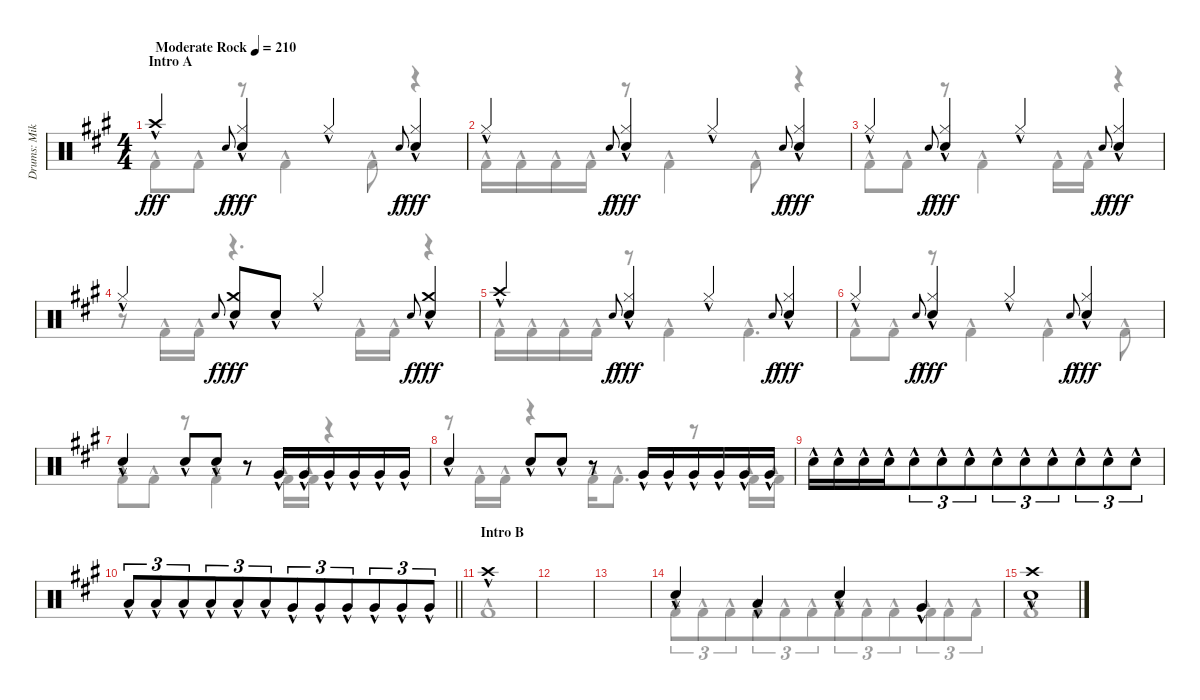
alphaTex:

\track ("Drums: Mikkey" "Drums: Mik") {instrument percussion}
\staff {score}
\articulation defaults
\voice
\ts (4 4)
\section ("" "Intro A")
\tempo (210 "Moderate Rock")
\clef neutral
\ks a "Crash high (hit)"{hac}.4{dy fff} "Electric Snare (hit)".8{gr onbeat dy f}
("Hi-Hat (closed)"{hac} "Snare (hit) 2"{hac}).4{dy fff} "Hi-Hat (closed)"{hac}.4 "Electric Snare (hit)".8{gr onbeat dy f} ("Hi-Hat (closed)"{hac} "Snare (hit) 2"{hac}).4{dy fff} |
"Hi-Hat (closed)"{hac}.4 "Electric Snare (hit)".8{gr onbeat dy f} ("Hi-Hat (closed)"{hac} "Snare (hit) 2"{hac}).4{dy fff} "Hi-Hat (closed)"{hac}.4 "Electric Snare (hit)".8{gr onbeat dy f} ("Hi-Hat (closed)"{hac} "Snare (hit) 2"{hac}).4{dy fff} |
"Hi-Hat (closed)"{hac}.4 "Electric Snare (hit)".8{gr onbeat dy f} ("Hi-Hat (closed)"{hac} "Snare (hit) 2"{hac}).4{dy fff} "Hi-Hat (closed)"{hac}.4 "Electric Snare (hit)".8{gr onbeat dy f} ("Hi-Hat (closed)"{hac} "Snare (hit) 2"{hac}).4{dy fff} |
"Hi-Hat (closed)"{hac}.4 "Electric Snare (hit)".8{gr onbeat dy f} ("Crash medium (hit)"{hac} "Snare (hit) 2"{hac}).8{dy fff} "Snare (hit) 2"{hac}.8 "Hi-Hat (closed)"{hac}.4 "Electric Snare (hit)".8{gr onbeat dy f} ("Crash medium (hit)"{hac} "Snare (hit) 2"{hac}).4{dy fff} |
"Crash high (hit)"{hac}.4 "Electric Snare (hit)".8{gr onbeat dy f} ("Hi-Hat (closed)"{hac} "Snare (hit) 2"{hac}).4{dy fff} "Hi-Hat (closed)"{hac}.4 "Electric Snare (hit)".8{gr onbeat dy f} ("Hi-Hat (closed)"{hac} "Snare (hit) 2"{hac}).4{dy fff} |
"Hi-Hat (closed)"{hac}.4 "Electric Snare (hit)".8{gr onbeat dy f} ("Hi-Hat (closed)"{hac} "Snare (hit) 2"{hac}).4{dy fff} "Hi-Hat (closed)"{hac}.4 "Electric Snare (hit)".8{gr onbeat dy f} ("Hi-Hat (closed)"{hac} "Snare (hit) 2"{hac}).4{dy fff} |
"Snare (hit) 2"{hac}.4 "Snare (hit) 2"{hac}.8 "Snare (hit) 2"{hac}.8 r.8 "Very Low Tom (hit)"{hac}.16 "Very Low Tom (hit)"{hac}.16{beam merge} "Very Low Tom (hit)"{hac}.16 "Very Low Tom (hit)"{hac}.16 "Very Low Tom (hit)"{hac}.16 "Very Low Tom (hit)"{hac}.16 |
"Snare (hit) 2"{hac}.4 "Snare (hit) 2"{hac}.8 "Snare (hit) 2"{hac}.8 r.8 "Very Low Tom (hit)"{hac}.16 "Very Low Tom (hit)"{hac}.16{beam merge} "Very Low Tom (hit)"{hac}.16 "Very Low Tom (hit)"{hac}.16 "Very Low Tom (hit)"{hac}.16 "Very Low Tom (hit)"{hac}.16 |
"Snare (hit) 2"{hac}.16 "Snare (hit) 2"{hac}.16 "Snare (hit) 2"{hac}.16 "Snare (hit) 2"{hac}.16{beam merge} "Snare (hit) 2"{hac}.8{tu (3 2)} "Snare (hit) 2"{hac}.8{tu (3 2)} "Snare (hit) 2"{hac}.8{tu (3 2) beam merge} "Snare (hit) 2"{hac}.8{tu (3 2)} "Snare (hit) 2"{hac}.8{tu (3 2)} "Snare (hit) 2"{hac}.8{tu (3 2) beam merge} "Snare (hit) 2"{hac}.8{tu (3 2)} "Snare (hit) 2"{hac}.8{tu (3 2)} "Snare (hit) 2"{hac}.8{tu (3 2)} |
\barLineRight lightlight "Low Tom (hit)"{hac}.8{tu (3 2)} "Low Tom (hit)"{hac}.8{tu (3 2)} "Low Tom (hit)"{hac}.8{tu (3 2) beam merge} "Low Tom (hit)"{hac}.8{tu (3 2)} "Low Tom (hit)"{hac}.8{tu (3 2)} "Low Tom (hit)"{hac}.8{tu (3 2) beam merge} "Very Low Tom (hit)"{hac}.8{tu (3 2)} "Very Low Tom (hit)"{hac}.8{tu (3 2)} "Very Low Tom (hit)"{hac}.8{tu (3 2) beam merge} "Very Low Tom (hit)"{hac}.8{tu (3 2)} "Very Low Tom (hit)"{hac}.8{tu (3 2)} "Very Low Tom (hit)"{hac}.8{tu (3 2)}
|
\section ("" "Intro B")
"Crash high (hit)"{hac}.1 |
|
|
"Snare (hit) 2"{hac}.4 "Low Tom (hit)"{hac}.4 "Snare (hit) 2"{hac}.4 "Very Low Tom (hit)"{hac}.4 |
("Crash high (hit)"{hac} "Snare (hit) 2"{hac}).1 |
\voice
\clef neutral
\ottava regular
\simile none
\ks a "Kick (hit) 2"{hac}.8{dy fff} "Kick (hit) 2"{hac}.8
r.8 "Kick (hit) 2"{hac}.4 "Kick (hit) 2"{hac}.8 r.4 |
"Kick (hit) 2"{hac}.16 "Kick (hit) 2"{hac}.16 "Kick (hit) 2"{hac}.16 "Kick (hit) 2"{hac}.16 r.8 "Kick (hit) 2"{hac}.4 "Kick (hit) 2"{hac}.8 r.4 |
"Kick (hit) 2"{hac}.8 "Kick (hit) 2"{hac}.8 r.8 "Kick (hit) 2"{hac}.4 "Kick (hit) 2"{hac}.16 "Kick (hit) 2"{hac}.16 r.4 |
r.8 "Kick (hit) 2"{hac}.16 "Kick (hit) 2"{hac}.16 r.4{d} "Kick (hit) 2"{hac}.16 "Kick (hit) 2"{hac}.16 r.4 |
"Kick (hit) 2"{hac}.16 "Kick (hit) 2"{hac}.16 "Kick (hit) 2"{hac}.16 "Kick (hit) 2"{hac}.16 r.8 "Kick (hit) 2"{hac}.4 "Kick (hit) 2"{hac}.4{d} |
"Kick (hit) 2"{hac}.8 "Kick (hit) 2"{hac}.8 r.8 "Kick (hit) 2"{hac}.4 "Kick (hit) 2"{hac}.4 "Kick (hit) 2"{hac}.8 |
"Kick (hit) 2"{hac}.8 "Kick (hit) 2"{hac}.8 r.8 "Kick (hit) 2"{hac}.4 "Kick (hit) 2"{hac}.16 "Kick (hit) 2"{hac}.16 r.4 |
r.8 "Kick (hit) 2"{hac}.16 "Kick (hit) 2"{hac}.16 r.4 "Kick (hit) 2"{hac}.16 "Kick (hit) 2"{hac}.8{d} r.8 "Kick (hit) 2"{hac}.16 "Kick (hit) 2"{hac}.16 |
|
\barLineRight lightlight
|
"Kick (hit) 2"{hac}.1 |
|
|
"Kick (hit) 2"{hac}.8{tu (3 2)} "Kick (hit) 2"{hac}.8{tu (3 2)} "Kick (hit) 2"{hac}.8{tu (3 2) beam merge} "Kick (hit) 2"{hac}.8{tu (3 2)} "Kick (hit) 2"{hac}.8{tu (3 2)} "Kick (hit) 2"{hac}.8{tu (3 2) beam merge} "Kick (hit) 2"{hac}.8{tu (3 2)} "Kick (hit) 2"{hac}.8{tu (3 2)} "Kick (hit) 2"{hac}.8{tu (3 2) beam merge} "Kick (hit) 2"{hac}.8{tu (3 2)} "Kick (hit) 2"{hac}.8{tu (3 2)} "Kick (hit) 2"{hac}.8{tu (3 2)} |
"Kick (hit) 2"{hac}.1 |
